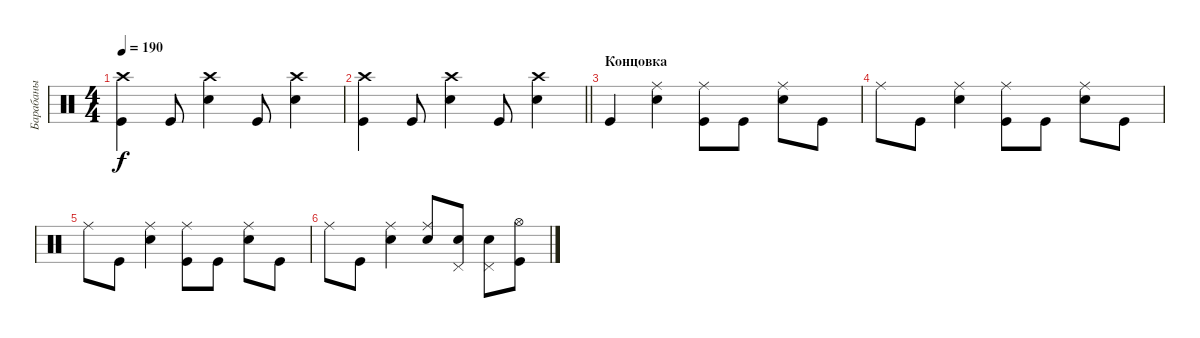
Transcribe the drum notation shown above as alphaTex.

\track ("Барабаны" "Барабаны") {instrument percussion}
\staff {score}
\articulation defaults
\ts (4 4)
\tempo 190
\clef neutral
\ks c
("Kick (hit)" "Crash high (hit)").4{dy f} "Kick (hit)".8 ("Snare (hit) 2" "Crash high (hit)").4 "Kick (hit)".8 ("Snare (hit) 2" "Crash high (hit)").4 |
\barLineRight lightlight
("Kick (hit)" "Crash high (hit)").4 "Kick (hit)".8 ("Snare (hit) 2" "Crash high (hit)").4 "Kick (hit)".8 ("Snare (hit) 2" "Crash high (hit)").4 |
\section ("" "Концовка")
"Kick (hit)".4 ("Snare (hit) 2" "Ride (middle)").4 ("Kick (hit)" "Ride (middle)").8 "Kick (hit)".8 ("Snare (hit) 2" "Ride (middle)").8 "Kick (hit)".8 |
"Ride (middle)".8 "Kick (hit)".8 ("Snare (hit) 2" "Ride (middle)").4 ("Kick (hit)" "Ride (middle)").8 "Kick (hit)".8 ("Snare (hit) 2" "Ride (middle)").8 "Kick (hit)".8 |
"Ride (middle)".8 "Kick (hit)".8 ("Snare (hit) 2" "Ride (middle)").4 ("Kick (hit)" "Ride (middle)").8 "Kick (hit)".8 ("Snare (hit) 2" "Ride (middle)").8 "Kick (hit)".8 |
"Ride (middle)".8 "Kick (hit)".8 ("Snare (hit) 2" "Ride (middle)").4 ("Snare (hit) 2" "Ride (middle)").8 ("Snare (hit) 2" "Pedal Hi-Hat (hit)").8 ("Snare (hit) 2" "Pedal Hi-Hat (hit)").8 ("Kick (hit)" "Hi-Hat (open)").8
